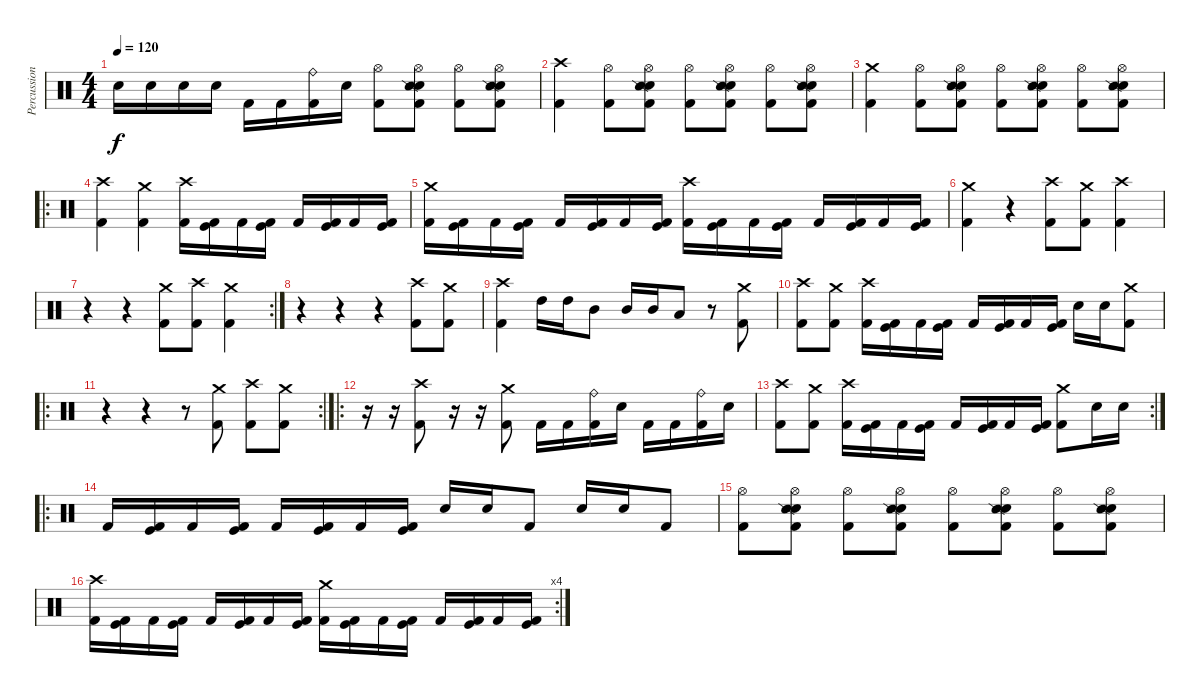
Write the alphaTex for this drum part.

\track ("Percussion" "Percussion") {instrument percussion}
\staff {score}
\articulation defaults
\ts (4 4)
\tempo 120
\clef neutral
\ks c "Electric Snare (hit)".16{dy f} "Electric Snare (hit)".16 "Electric Snare (hit)".16 "Electric Snare (hit)".16 "Kick (hit) 2".16 "Kick (hit) 2".16
("Ride (bell)" "Kick (hit) 2").16 "Electric Snare (hit)".16 ("Hi-Hat (open)" "Kick (hit) 2").8 ("Hi-Hat (open)" "Electric Snare (hit)" "Snare (side stick) 2" "Kick (hit) 2").8 ("Hi-Hat (open)" "Kick (hit) 2").8 ("Hi-Hat (open)" "Electric Snare (hit)" "Snare (side stick) 2" "Kick (hit) 2").8 |
("Crash high (hit)" "Kick (hit) 2").4 ("Hi-Hat (open)" "Kick (hit) 2").8 ("Hi-Hat (open)" "Electric Snare (hit)" "Snare (side stick) 2" "Kick (hit) 2").8 ("Hi-Hat (open)" "Kick (hit) 2").8 ("Hi-Hat (open)" "Electric Snare (hit)" "Snare (side stick) 2" "Kick (hit) 2").8 ("Hi-Hat (open)" "Kick (hit) 2").8 ("Hi-Hat (open)" "Electric Snare (hit)" "Snare (side stick) 2" "Kick (hit) 2").8 |
("Crash medium (hit)" "Kick (hit) 2").4 ("Hi-Hat (open)" "Kick (hit) 2").8 ("Hi-Hat (open)" "Electric Snare (hit)" "Snare (side stick) 2" "Kick (hit) 2").8 ("Hi-Hat (open)" "Kick (hit) 2").8 ("Hi-Hat (open)" "Electric Snare (hit)" "Snare (side stick) 2" "Kick (hit) 2").8 ("Hi-Hat (open)" "Kick (hit) 2").8 ("Hi-Hat (open)" "Electric Snare (hit)" "Snare (side stick) 2" "Kick (hit) 2").8 |
\ro
("Crash high (hit)" "Kick (hit) 2").4 ("Crash medium (hit)" "Kick (hit) 2").4 ("Crash high (hit)" "Kick (hit) 2").16 ("Kick (hit)" "Kick (hit) 2").16 "Kick (hit) 2".16 ("Kick (hit)" "Kick (hit) 2").16 "Kick (hit) 2".16 ("Kick (hit)" "Kick (hit) 2").16 "Kick (hit) 2".16 ("Kick (hit)" "Kick (hit) 2").16 |
("Crash medium (hit)" "Kick (hit) 2").16 ("Kick (hit)" "Kick (hit) 2").16 "Kick (hit) 2".16 ("Kick (hit)" "Kick (hit) 2").16 "Kick (hit) 2".16 ("Kick (hit)" "Kick (hit) 2").16 "Kick (hit) 2".16 ("Kick (hit)" "Kick (hit) 2").16 ("Crash high (hit)" "Kick (hit) 2").16 ("Kick (hit)" "Kick (hit) 2").16 "Kick (hit) 2".16 ("Kick (hit)" "Kick (hit) 2").16 "Kick (hit) 2".16 ("Kick (hit)" "Kick (hit) 2").16 "Kick (hit) 2".16 ("Kick (hit)" "Kick (hit) 2").16 |
("Crash medium (hit)" "Kick (hit) 2").4 r.4 ("Crash high (hit)" "Kick (hit) 2").8 ("Crash medium (hit)" "Kick (hit) 2").8 ("Crash high (hit)" "Kick (hit) 2").4 |
\rc 2
r.4 r.4 ("Crash medium (hit)" "Kick (hit) 2").8 ("Crash high (hit)" "Kick (hit) 2").8 ("Crash medium (hit)" "Kick (hit) 2").4 |
r.4 r.4 r.4 ("Crash high (hit)" "Kick (hit) 2").8 ("Crash medium (hit)" "Kick (hit) 2").8 |
("Crash high (hit)" "Kick (hit) 2").4 "High Tom (hit)".16 "High Tom (hit)".16 "Mid Tom (hit)".8 "Mid Tom (hit)".16 "Mid Tom (hit)".16 "Low Tom (hit)".8 r.8 ("Crash medium (hit)" "Kick (hit) 2").8 |
("Crash high (hit)" "Kick (hit) 2").8 ("Crash medium (hit)" "Kick (hit) 2").8 ("Crash high (hit)" "Kick (hit) 2").16 ("Kick (hit)" "Kick (hit) 2").16 "Kick (hit) 2".16 ("Kick (hit)" "Kick (hit) 2").16 "Kick (hit) 2".16 ("Kick (hit)" "Kick (hit) 2").16 "Kick (hit) 2".16 ("Kick (hit)" "Kick (hit) 2").16 "Electric Snare (hit)".16 "Electric Snare (hit)".16 ("Crash medium (hit)" "Kick (hit) 2").8 |
\ro
\rc 2
r.4 r.4 r.8 ("Crash medium (hit)" "Kick (hit) 2").8 ("Crash high (hit)" "Kick (hit) 2").8 ("Crash medium (hit)" "Kick (hit) 2").8 |
\ro
r.16 r.16 ("Crash high (hit)" "Kick (hit) 2").8 r.16 r.16 ("Crash medium (hit)" "Kick (hit) 2").8 "Kick (hit) 2".16 "Kick (hit) 2".16 ("Ride (bell)" "Kick (hit) 2").16 "Electric Snare (hit)".16 "Kick (hit) 2".16 "Kick (hit) 2".16 ("Ride (bell)" "Kick (hit) 2").16 "Electric Snare (hit)".16 |
\rc 2
("Crash high (hit)" "Kick (hit) 2").8 ("Crash medium (hit)" "Kick (hit) 2").8 ("Crash high (hit)" "Kick (hit) 2").16 ("Kick (hit)" "Kick (hit) 2").16 "Kick (hit) 2".16 ("Kick (hit)" "Kick (hit) 2").16 "Kick (hit) 2".16 ("Kick (hit)" "Kick (hit) 2").16 "Kick (hit) 2".16 ("Kick (hit)" "Kick (hit) 2").16 ("Crash medium (hit)" "Kick (hit) 2").8 "Electric Snare (hit)".16 "Electric Snare (hit)".16 |
\ro "Kick (hit) 2".16
("Kick (hit)" "Kick (hit) 2").16 "Kick (hit) 2".16 ("Kick (hit)" "Kick (hit) 2").16 "Kick (hit) 2".16 ("Kick (hit)" "Kick (hit) 2").16 "Kick (hit) 2".16 ("Kick (hit)" "Kick (hit) 2").16 "Electric Snare (hit)".16 "Electric Snare (hit)".16 "Kick (hit) 2".8 "Electric Snare (hit)".16 "Electric Snare (hit)".16 "Kick (hit) 2".8 |
("Hi-Hat (open)" "Kick (hit) 2").8 ("Hi-Hat (open)" "Electric Snare (hit)" "Snare (side stick) 2" "Kick (hit) 2").8 ("Hi-Hat (open)" "Kick (hit) 2").8 ("Hi-Hat (open)" "Electric Snare (hit)" "Snare (side stick) 2" "Kick (hit) 2").8 ("Hi-Hat (open)" "Kick (hit) 2").8 ("Hi-Hat (open)" "Electric Snare (hit)" "Snare (side stick) 2" "Kick (hit) 2").8 ("Hi-Hat (open)" "Kick (hit) 2").8 ("Hi-Hat (open)" "Electric Snare (hit)" "Snare (side stick) 2" "Kick (hit) 2").8 |
\rc 4
("Crash high (hit)" "Kick (hit) 2").16 ("Kick (hit)" "Kick (hit) 2").16 "Kick (hit) 2".16 ("Kick (hit)" "Kick (hit) 2").16 "Kick (hit) 2".16 ("Kick (hit)" "Kick (hit) 2").16 "Kick (hit) 2".16 ("Kick (hit)" "Kick (hit) 2").16 ("Crash medium (hit)" "Kick (hit) 2").16 ("Kick (hit)" "Kick (hit) 2").16 "Kick (hit) 2".16 ("Kick (hit)" "Kick (hit) 2").16 "Kick (hit) 2".16 ("Kick (hit)" "Kick (hit) 2").16 "Kick (hit) 2".16 ("Kick (hit)" "Kick (hit) 2").16
